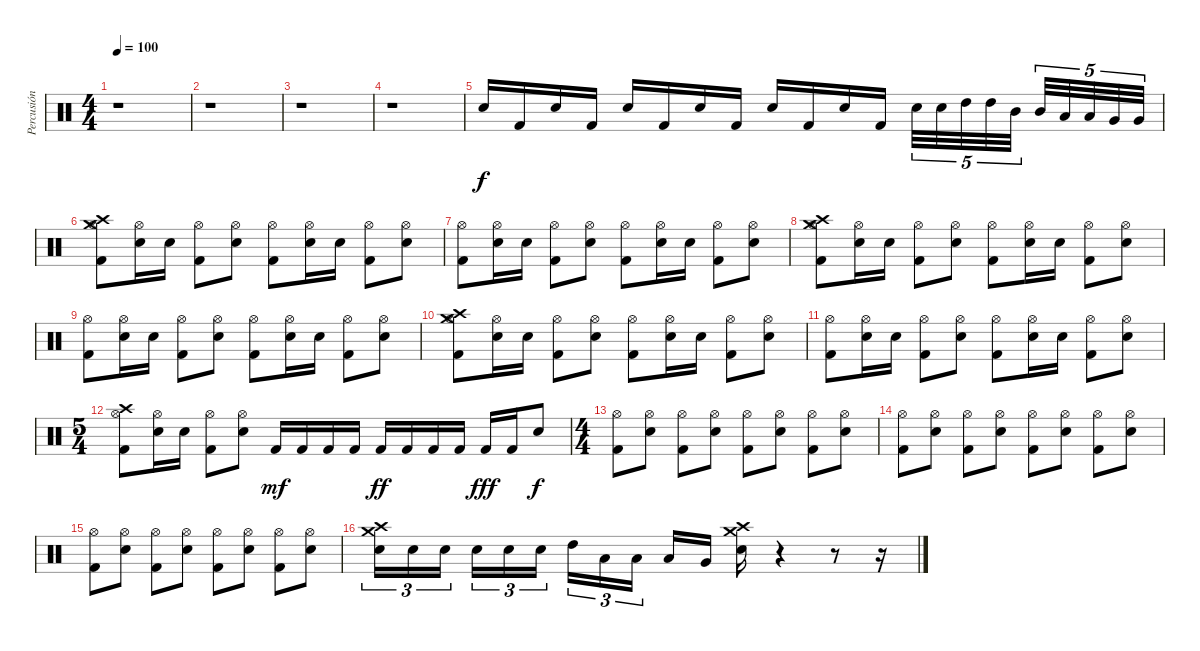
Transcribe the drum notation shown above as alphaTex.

\track ("Percusión" "Percusión") {instrument percussion}
\staff {score}
\articulation defaults
\ts (4 4)
\tempo 100
\clef neutral
\ks c
r.1{dy f} |
r.1 |
r.1 |
r.1 |
"Electric Snare (hit)".16{volume 14} "Kick (hit) 2".16 "Electric Snare (hit)".16 "Kick (hit) 2".16 "Electric Snare (hit)".16 "Kick (hit) 2".16 "Electric Snare (hit)".16 "Kick (hit) 2".16 "Electric Snare (hit)".16 "Kick (hit) 2".16 "Electric Snare (hit)".16 "Kick (hit) 2".16 "Electric Snare (hit)".32{tu (5 4)} "Electric Snare (hit)".32{tu (5 4)} "High Tom (hit)".32{tu (5 4)} "High Tom (hit)".32{tu (5 4)} "Mid Tom (hit)".32{tu (5 4)} "Mid Tom (hit)".32{tu (5 4)} "Low Tom (hit)".32{tu (5 4)} "Low Tom (hit)".32{tu (5 4)} "Very Low Tom (hit)".32{tu (5 4)} "Very Low Tom (hit)".32{tu (5 4)} |
("Crash high (hit)" "Hi-Hat (open)" "Crash medium (hit)" "Kick (hit) 2").8 ("Hi-Hat (open)" "Electric Snare (hit)").16 "Electric Snare (hit)".16 ("Hi-Hat (open)" "Kick (hit) 2").8 ("Hi-Hat (open)" "Electric Snare (hit)").8 ("Hi-Hat (open)" "Kick (hit) 2").8 ("Hi-Hat (open)" "Electric Snare (hit)").16 "Electric Snare (hit)".16 ("Hi-Hat (open)" "Kick (hit) 2").8 ("Hi-Hat (open)" "Electric Snare (hit)").8 |
("Hi-Hat (open)" "Kick (hit) 2").8 ("Hi-Hat (open)" "Electric Snare (hit)").16 "Electric Snare (hit)".16 ("Hi-Hat (open)" "Kick (hit) 2").8 ("Hi-Hat (open)" "Electric Snare (hit)").8 ("Hi-Hat (open)" "Kick (hit) 2").8 ("Hi-Hat (open)" "Electric Snare (hit)").16 "Electric Snare (hit)".16 ("Hi-Hat (open)" "Kick (hit) 2").8 ("Hi-Hat (open)" "Electric Snare (hit)").8 |
("Crash high (hit)" "Hi-Hat (open)" "Crash medium (hit)" "Kick (hit) 2").8 ("Hi-Hat (open)" "Electric Snare (hit)").16 "Electric Snare (hit)".16 ("Hi-Hat (open)" "Kick (hit) 2").8 ("Hi-Hat (open)" "Electric Snare (hit)").8 ("Hi-Hat (open)" "Kick (hit) 2").8 ("Hi-Hat (open)" "Electric Snare (hit)").16 "Electric Snare (hit)".16 ("Hi-Hat (open)" "Kick (hit) 2").8 ("Hi-Hat (open)" "Electric Snare (hit)").8 |
("Hi-Hat (open)" "Kick (hit) 2").8 ("Hi-Hat (open)" "Electric Snare (hit)").16 "Electric Snare (hit)".16 ("Hi-Hat (open)" "Kick (hit) 2").8 ("Hi-Hat (open)" "Electric Snare (hit)").8 ("Hi-Hat (open)" "Kick (hit) 2").8 ("Hi-Hat (open)" "Electric Snare (hit)").16 "Electric Snare (hit)".16 ("Hi-Hat (open)" "Kick (hit) 2").8 ("Hi-Hat (open)" "Electric Snare (hit)").8 |
("Crash high (hit)" "Hi-Hat (open)" "Crash medium (hit)" "Kick (hit) 2").8 ("Hi-Hat (open)" "Electric Snare (hit)").16 "Electric Snare (hit)".16 ("Hi-Hat (open)" "Kick (hit) 2").8 ("Hi-Hat (open)" "Electric Snare (hit)").8 ("Hi-Hat (open)" "Kick (hit) 2").8 ("Hi-Hat (open)" "Electric Snare (hit)").16 "Electric Snare (hit)".16 ("Hi-Hat (open)" "Kick (hit) 2").8 ("Hi-Hat (open)" "Electric Snare (hit)").8 |
("Hi-Hat (open)" "Kick (hit) 2").8 ("Hi-Hat (open)" "Electric Snare (hit)").16 "Electric Snare (hit)".16 ("Hi-Hat (open)" "Kick (hit) 2").8 ("Hi-Hat (open)" "Electric Snare (hit)").8 ("Hi-Hat (open)" "Kick (hit) 2").8 ("Hi-Hat (open)" "Electric Snare (hit)").16 "Electric Snare (hit)".16 ("Hi-Hat (open)" "Kick (hit) 2").8 ("Hi-Hat (open)" "Electric Snare (hit)").8 |
\ts (5 4)
("Crash high (hit)" "Hi-Hat (open)" "Kick (hit) 2").8 ("Hi-Hat (open)" "Electric Snare (hit)").16 "Electric Snare (hit)".16 ("Hi-Hat (open)" "Kick (hit) 2").8 ("Hi-Hat (open)" "Electric Snare (hit)").8 "Kick (hit) 2".16{dy mf} "Kick (hit) 2".16 "Kick (hit) 2".16 "Kick (hit) 2".16 "Kick (hit) 2".16{dy ff} "Kick (hit) 2".16 "Kick (hit) 2".16 "Kick (hit) 2".16 "Kick (hit) 2".16{dy fff} "Kick (hit) 2".16 "Electric Snare (hit)".8{dy f} |
\ts (4 4)
("Hi-Hat (open)" "Kick (hit) 2").8 ("Hi-Hat (open)" "Electric Snare (hit)").8 ("Hi-Hat (open)" "Kick (hit) 2").8 ("Hi-Hat (open)" "Electric Snare (hit)").8 ("Hi-Hat (open)" "Kick (hit) 2").8 ("Hi-Hat (open)" "Electric Snare (hit)").8 ("Hi-Hat (open)" "Kick (hit) 2").8 ("Hi-Hat (open)" "Electric Snare (hit)").8 |
("Hi-Hat (open)" "Kick (hit) 2").8 ("Hi-Hat (open)" "Electric Snare (hit)").8 ("Hi-Hat (open)" "Kick (hit) 2").8 ("Hi-Hat (open)" "Electric Snare (hit)").8 ("Hi-Hat (open)" "Kick (hit) 2").8 ("Hi-Hat (open)" "Electric Snare (hit)").8 ("Hi-Hat (open)" "Kick (hit) 2").8 ("Hi-Hat (open)" "Electric Snare (hit)").8 |
("Hi-Hat (open)" "Kick (hit) 2").8 ("Hi-Hat (open)" "Electric Snare (hit)").8 ("Hi-Hat (open)" "Kick (hit) 2").8 ("Hi-Hat (open)" "Electric Snare (hit)").8 ("Hi-Hat (open)" "Kick (hit) 2").8 ("Hi-Hat (open)" "Electric Snare (hit)").8 ("Hi-Hat (open)" "Kick (hit) 2").8 ("Hi-Hat (open)" "Electric Snare (hit)").8 |
("Crash high (hit)" "Crash medium (hit)" "Electric Snare (hit)").16{tu (3 2)} "Electric Snare (hit)".16{tu (3 2)} "Electric Snare (hit)".16{tu (3 2)} "Electric Snare (hit)".16{tu (3 2)} "Electric Snare (hit)".16{tu (3 2)} "Electric Snare (hit)".16{tu (3 2)} "High Tom (hit)".16{tu (3 2)} "Low Tom (hit)".16{tu (3 2)} "Low Tom (hit)".16{tu (3 2)} "Low Tom (hit)".16 "Very Low Tom (hit)".16 ("Crash high (hit)" "Crash medium (hit)" "Electric Snare (hit)").16 r.4 r.8 r.16
